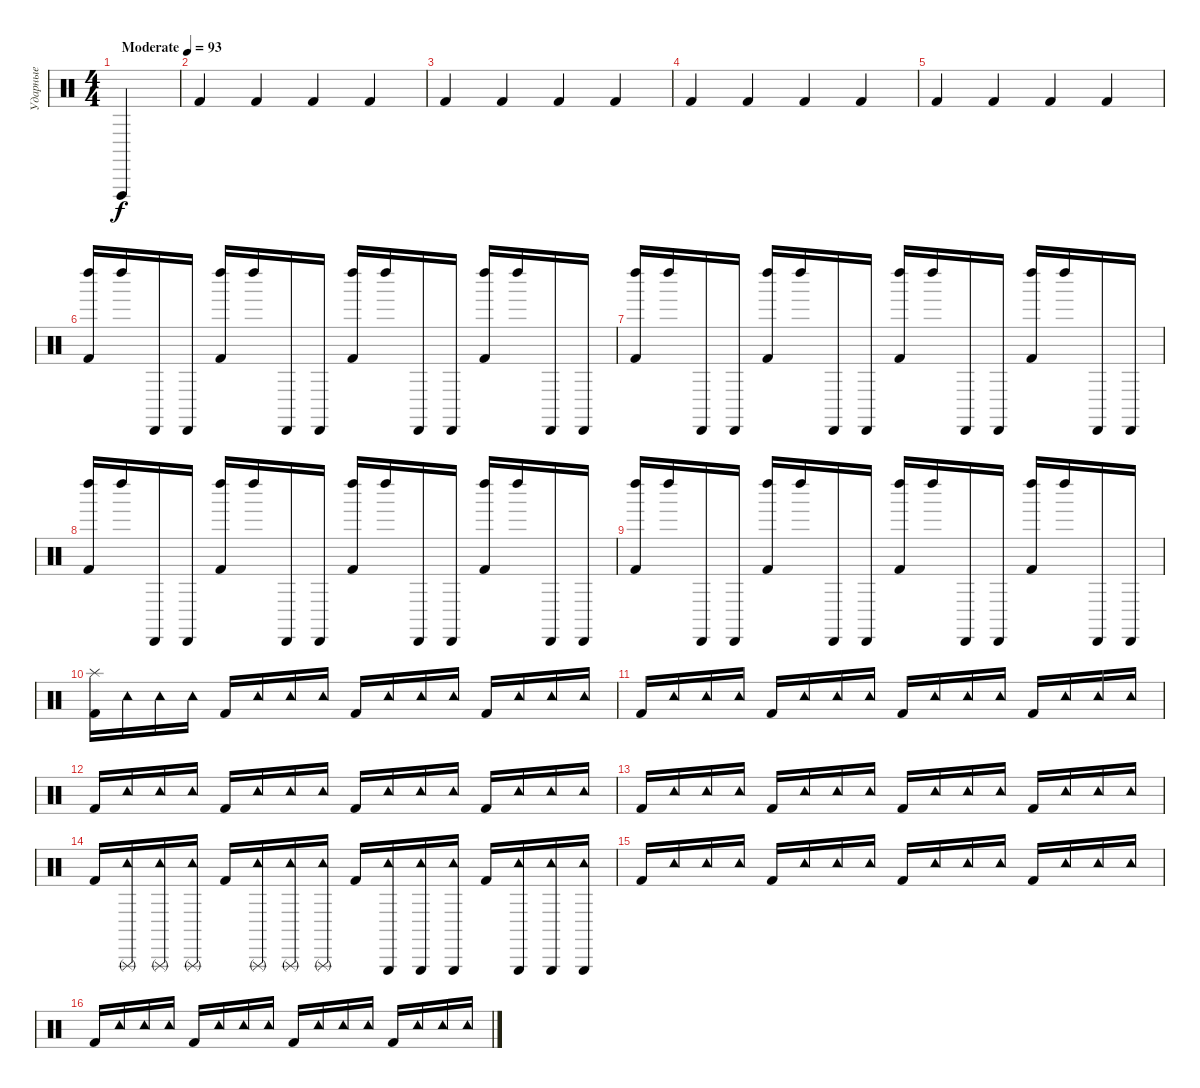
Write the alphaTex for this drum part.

\track ("Ударные" "Ударные") {solo instrument percussion}
\staff {score}
\articulation defaults
\ts (4 4)
\tempo (93 "Moderate")
\clef neutral
\ks c "Vibraslap (hit)".4{dy f}
|
"Kick (hit) 2".4 "Kick (hit) 2".4 "Kick (hit) 2".4 "Kick (hit) 2".4 |
"Kick (hit) 2".4 "Kick (hit) 2".4 "Kick (hit) 2".4 "Kick (hit) 2".4 |
"Kick (hit) 2".4 "Kick (hit) 2".4 "Kick (hit) 2".4 "Kick (hit) 2".4 |
"Kick (hit) 2".4 "Kick (hit) 2".4 "Kick (hit) 2".4 "Kick (hit) 2".4 |
("Kick (hit) 2" "Left Maraca (hit)").16 "Left Maraca (hit)".16 "Cabasa (hit)".16 "Cabasa (hit)".16 ("Kick (hit) 2" "Left Maraca (hit)").16 "Left Maraca (hit)".16 "Cabasa (hit)".16 "Cabasa (hit)".16 ("Kick (hit) 2" "Left Maraca (hit)").16 "Left Maraca (hit)".16 "Cabasa (hit)".16 "Cabasa (hit)".16 ("Kick (hit) 2" "Left Maraca (hit)").16 "Left Maraca (hit)".16 "Cabasa (hit)".16 "Cabasa (hit)".16 |
("Kick (hit) 2" "Left Maraca (hit)").16 "Left Maraca (hit)".16 "Cabasa (hit)".16 "Cabasa (hit)".16 ("Kick (hit) 2" "Left Maraca (hit)").16 "Left Maraca (hit)".16 "Cabasa (hit)".16 "Cabasa (hit)".16 ("Kick (hit) 2" "Left Maraca (hit)").16 "Left Maraca (hit)".16 "Cabasa (hit)".16 "Cabasa (hit)".16 ("Kick (hit) 2" "Left Maraca (hit)").16 "Left Maraca (hit)".16 "Cabasa (hit)".16 "Cabasa (hit)".16 |
("Kick (hit) 2" "Left Maraca (hit)").16 "Left Maraca (hit)".16 "Cabasa (hit)".16 "Cabasa (hit)".16 ("Kick (hit) 2" "Left Maraca (hit)").16 "Left Maraca (hit)".16 "Cabasa (hit)".16 "Cabasa (hit)".16 ("Kick (hit) 2" "Left Maraca (hit)").16 "Left Maraca (hit)".16 "Cabasa (hit)".16 "Cabasa (hit)".16 ("Kick (hit) 2" "Left Maraca (hit)").16 "Left Maraca (hit)".16 "Cabasa (hit)".16 "Cabasa (hit)".16 |
("Kick (hit) 2" "Left Maraca (hit)").16 "Left Maraca (hit)".16 "Cabasa (hit)".16 "Cabasa (hit)".16 ("Kick (hit) 2" "Left Maraca (hit)").16 "Left Maraca (hit)".16 "Cabasa (hit)".16 "Cabasa (hit)".16 ("Kick (hit) 2" "Left Maraca (hit)").16 "Left Maraca (hit)".16 "Cabasa (hit)".16 "Cabasa (hit)".16 ("Kick (hit) 2" "Left Maraca (hit)").16 "Left Maraca (hit)".16 "Cabasa (hit)".16 "Cabasa (hit)".16 |
("Kick (hit) 2" "Splash (hit)").16 "Tambourine (hit)".16 "Tambourine (hit)".16 "Tambourine (hit)".16 "Kick (hit) 2".16 "Tambourine (hit)".16 "Tambourine (hit)".16 "Tambourine (hit)".16 "Kick (hit) 2".16 "Tambourine (hit)".16 "Tambourine (hit)".16 "Tambourine (hit)".16 "Kick (hit) 2".16 "Tambourine (hit)".16 "Tambourine (hit)".16 "Tambourine (hit)".16 |
"Kick (hit) 2".16 "Tambourine (hit)".16 "Tambourine (hit)".16 "Tambourine (hit)".16 "Kick (hit) 2".16 "Tambourine (hit)".16 "Tambourine (hit)".16 "Tambourine (hit)".16 "Kick (hit) 2".16 "Tambourine (hit)".16 "Tambourine (hit)".16 "Tambourine (hit)".16 "Kick (hit) 2".16 "Tambourine (hit)".16 "Tambourine (hit)".16 "Tambourine (hit)".16 |
"Kick (hit) 2".16 "Tambourine (hit)".16 "Tambourine (hit)".16 "Tambourine (hit)".16 "Kick (hit) 2".16 "Tambourine (hit)".16 "Tambourine (hit)".16 "Tambourine (hit)".16 "Kick (hit) 2".16 "Tambourine (hit)".16 "Tambourine (hit)".16 "Tambourine (hit)".16 "Kick (hit) 2".16 "Tambourine (hit)".16 "Tambourine (hit)".16 "Tambourine (hit)".16 |
"Kick (hit) 2".16 "Tambourine (hit)".16 "Tambourine (hit)".16 "Tambourine (hit)".16 "Kick (hit) 2".16 "Tambourine (hit)".16 "Tambourine (hit)".16 "Tambourine (hit)".16 "Kick (hit) 2".16 "Tambourine (hit)".16 "Tambourine (hit)".16 "Tambourine (hit)".16 "Kick (hit) 2".16 "Tambourine (hit)".16 "Tambourine (hit)".16 "Tambourine (hit)".16 |
"Kick (hit) 2".16 ("Tambourine (hit)" "Triangle (rnute)").16 ("Tambourine (hit)" "Triangle (rnute)").16 ("Tambourine (hit)" "Triangle (rnute)").16 "Kick (hit) 2".16 ("Tambourine (hit)" "Triangle (rnute)").16 ("Tambourine (hit)" "Triangle (rnute)").16 ("Tambourine (hit)" "Triangle (rnute)").16 "Kick (hit) 2".16 ("Tambourine (hit)" "Triangle (hit)").16 ("Tambourine (hit)" "Triangle (hit)").16 ("Tambourine (hit)" "Triangle (hit)").16 "Kick (hit) 2".16 ("Tambourine (hit)" "Triangle (hit)").16 ("Tambourine (hit)" "Triangle (hit)").16 ("Tambourine (hit)" "Triangle (hit)").16 |
"Kick (hit) 2".16 "Tambourine (hit)".16 "Tambourine (hit)".16 "Tambourine (hit)".16 "Kick (hit) 2".16 "Tambourine (hit)".16 "Tambourine (hit)".16 "Tambourine (hit)".16 "Kick (hit) 2".16 "Tambourine (hit)".16 "Tambourine (hit)".16 "Tambourine (hit)".16 "Kick (hit) 2".16 "Tambourine (hit)".16 "Tambourine (hit)".16 "Tambourine (hit)".16 |
"Kick (hit) 2".16 "Tambourine (hit)".16 "Tambourine (hit)".16 "Tambourine (hit)".16 "Kick (hit) 2".16 "Tambourine (hit)".16 "Tambourine (hit)".16 "Tambourine (hit)".16 "Kick (hit) 2".16 "Tambourine (hit)".16 "Tambourine (hit)".16 "Tambourine (hit)".16 "Kick (hit) 2".16 "Tambourine (hit)".16 "Tambourine (hit)".16 "Tambourine (hit)".16
